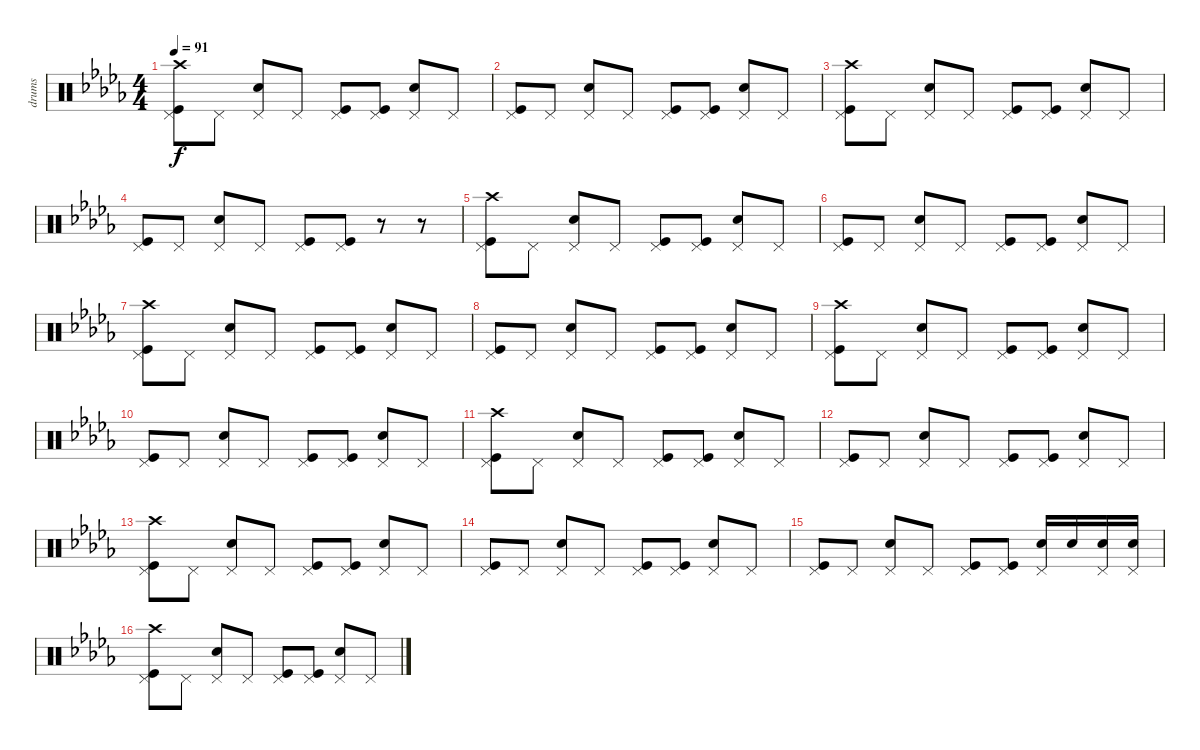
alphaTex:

\track ("drums" "drums") {instrument percussion}
\staff {score}
\articulation defaults
\ts (4 4)
\tempo 91
\clef neutral
\ks db
("Crash high (hit)" "Pedal Hi-Hat (hit)" "Kick (hit)").8{dy f} "Pedal Hi-Hat (hit)".8 ("Pedal Hi-Hat (hit)" "Electric Snare (hit)").8 "Pedal Hi-Hat (hit)".8 ("Pedal Hi-Hat (hit)" "Kick (hit)").8 ("Pedal Hi-Hat (hit)" "Kick (hit)").8 ("Pedal Hi-Hat (hit)" "Electric Snare (hit)").8 "Pedal Hi-Hat (hit)".8 |
("Pedal Hi-Hat (hit)" "Kick (hit)").8 "Pedal Hi-Hat (hit)".8 ("Pedal Hi-Hat (hit)" "Snare (hit) 2").8 "Pedal Hi-Hat (hit)".8 ("Pedal Hi-Hat (hit)" "Kick (hit)").8 ("Pedal Hi-Hat (hit)" "Kick (hit)").8 ("Pedal Hi-Hat (hit)" "Snare (hit) 2").8 "Pedal Hi-Hat (hit)".8 |
("Crash high (hit)" "Pedal Hi-Hat (hit)" "Kick (hit)").8 "Pedal Hi-Hat (hit)".8 ("Pedal Hi-Hat (hit)" "Electric Snare (hit)").8 "Pedal Hi-Hat (hit)".8 ("Pedal Hi-Hat (hit)" "Kick (hit)").8 ("Pedal Hi-Hat (hit)" "Kick (hit)").8 ("Pedal Hi-Hat (hit)" "Electric Snare (hit)").8 "Pedal Hi-Hat (hit)".8 |
("Pedal Hi-Hat (hit)" "Kick (hit)").8 "Pedal Hi-Hat (hit)".8 ("Pedal Hi-Hat (hit)" "Snare (hit) 2").8 "Pedal Hi-Hat (hit)".8 ("Pedal Hi-Hat (hit)" "Kick (hit)").8 ("Pedal Hi-Hat (hit)" "Kick (hit)").8 r.8 r.8 |
("Crash high (hit)" "Pedal Hi-Hat (hit)" "Kick (hit)").8 "Pedal Hi-Hat (hit)".8 ("Pedal Hi-Hat (hit)" "Electric Snare (hit)").8 "Pedal Hi-Hat (hit)".8 ("Pedal Hi-Hat (hit)" "Kick (hit)").8 ("Pedal Hi-Hat (hit)" "Kick (hit)").8 ("Pedal Hi-Hat (hit)" "Electric Snare (hit)").8 "Pedal Hi-Hat (hit)".8 |
("Pedal Hi-Hat (hit)" "Kick (hit)").8 "Pedal Hi-Hat (hit)".8 ("Pedal Hi-Hat (hit)" "Snare (hit) 2").8 "Pedal Hi-Hat (hit)".8 ("Pedal Hi-Hat (hit)" "Kick (hit)").8 ("Pedal Hi-Hat (hit)" "Kick (hit)").8 ("Pedal Hi-Hat (hit)" "Snare (hit) 2").8 "Pedal Hi-Hat (hit)".8 |
("Crash high (hit)" "Pedal Hi-Hat (hit)" "Kick (hit)").8 "Pedal Hi-Hat (hit)".8 ("Pedal Hi-Hat (hit)" "Electric Snare (hit)").8 "Pedal Hi-Hat (hit)".8 ("Pedal Hi-Hat (hit)" "Kick (hit)").8 ("Pedal Hi-Hat (hit)" "Kick (hit)").8 ("Pedal Hi-Hat (hit)" "Electric Snare (hit)").8 "Pedal Hi-Hat (hit)".8 |
("Pedal Hi-Hat (hit)" "Kick (hit)").8 "Pedal Hi-Hat (hit)".8 ("Pedal Hi-Hat (hit)" "Snare (hit) 2").8 "Pedal Hi-Hat (hit)".8 ("Pedal Hi-Hat (hit)" "Kick (hit)").8 ("Pedal Hi-Hat (hit)" "Kick (hit)").8 ("Pedal Hi-Hat (hit)" "Snare (hit) 2").8 "Pedal Hi-Hat (hit)".8 |
("Crash high (hit)" "Pedal Hi-Hat (hit)" "Kick (hit)").8 "Pedal Hi-Hat (hit)".8 ("Pedal Hi-Hat (hit)" "Electric Snare (hit)").8 "Pedal Hi-Hat (hit)".8 ("Pedal Hi-Hat (hit)" "Kick (hit)").8 ("Pedal Hi-Hat (hit)" "Kick (hit)").8 ("Pedal Hi-Hat (hit)" "Electric Snare (hit)").8 "Pedal Hi-Hat (hit)".8 |
("Pedal Hi-Hat (hit)" "Kick (hit)").8 "Pedal Hi-Hat (hit)".8 ("Pedal Hi-Hat (hit)" "Snare (hit) 2").8 "Pedal Hi-Hat (hit)".8 ("Pedal Hi-Hat (hit)" "Kick (hit)").8 ("Pedal Hi-Hat (hit)" "Kick (hit)").8 ("Pedal Hi-Hat (hit)" "Snare (hit) 2").8 "Pedal Hi-Hat (hit)".8 |
("Crash high (hit)" "Pedal Hi-Hat (hit)" "Kick (hit)").8 "Pedal Hi-Hat (hit)".8 ("Pedal Hi-Hat (hit)" "Electric Snare (hit)").8 "Pedal Hi-Hat (hit)".8 ("Pedal Hi-Hat (hit)" "Kick (hit)").8 ("Pedal Hi-Hat (hit)" "Kick (hit)").8 ("Pedal Hi-Hat (hit)" "Electric Snare (hit)").8 "Pedal Hi-Hat (hit)".8 |
("Pedal Hi-Hat (hit)" "Kick (hit)").8 "Pedal Hi-Hat (hit)".8 ("Pedal Hi-Hat (hit)" "Snare (hit) 2").8 "Pedal Hi-Hat (hit)".8 ("Pedal Hi-Hat (hit)" "Kick (hit)").8 ("Pedal Hi-Hat (hit)" "Kick (hit)").8 ("Pedal Hi-Hat (hit)" "Snare (hit) 2").8 "Pedal Hi-Hat (hit)".8 |
("Crash high (hit)" "Pedal Hi-Hat (hit)" "Kick (hit)").8 "Pedal Hi-Hat (hit)".8 ("Pedal Hi-Hat (hit)" "Electric Snare (hit)").8 "Pedal Hi-Hat (hit)".8 ("Pedal Hi-Hat (hit)" "Kick (hit)").8 ("Pedal Hi-Hat (hit)" "Kick (hit)").8 ("Pedal Hi-Hat (hit)" "Electric Snare (hit)").8 "Pedal Hi-Hat (hit)".8 |
("Pedal Hi-Hat (hit)" "Kick (hit)").8 "Pedal Hi-Hat (hit)".8 ("Pedal Hi-Hat (hit)" "Snare (hit) 2").8 "Pedal Hi-Hat (hit)".8 ("Pedal Hi-Hat (hit)" "Kick (hit)").8 ("Pedal Hi-Hat (hit)" "Kick (hit)").8 ("Pedal Hi-Hat (hit)" "Snare (hit) 2").8 "Pedal Hi-Hat (hit)".8 |
("Pedal Hi-Hat (hit)" "Kick (hit)").8 "Pedal Hi-Hat (hit)".8 ("Pedal Hi-Hat (hit)" "Snare (hit) 2").8 "Pedal Hi-Hat (hit)".8 ("Pedal Hi-Hat (hit)" "Kick (hit)").8 ("Pedal Hi-Hat (hit)" "Kick (hit)").8 ("Pedal Hi-Hat (hit)" "Snare (hit) 2").16 "Snare (hit) 2".16 ("Pedal Hi-Hat (hit)" "Snare (hit) 2").16 ("Pedal Hi-Hat (hit)" "Snare (hit) 2").16 |
("Crash high (hit)" "Pedal Hi-Hat (hit)" "Kick (hit)").8 "Pedal Hi-Hat (hit)".8 ("Pedal Hi-Hat (hit)" "Electric Snare (hit)").8 "Pedal Hi-Hat (hit)".8 ("Pedal Hi-Hat (hit)" "Kick (hit)").8 ("Pedal Hi-Hat (hit)" "Kick (hit)").8 ("Pedal Hi-Hat (hit)" "Electric Snare (hit)").8 "Pedal Hi-Hat (hit)".8
